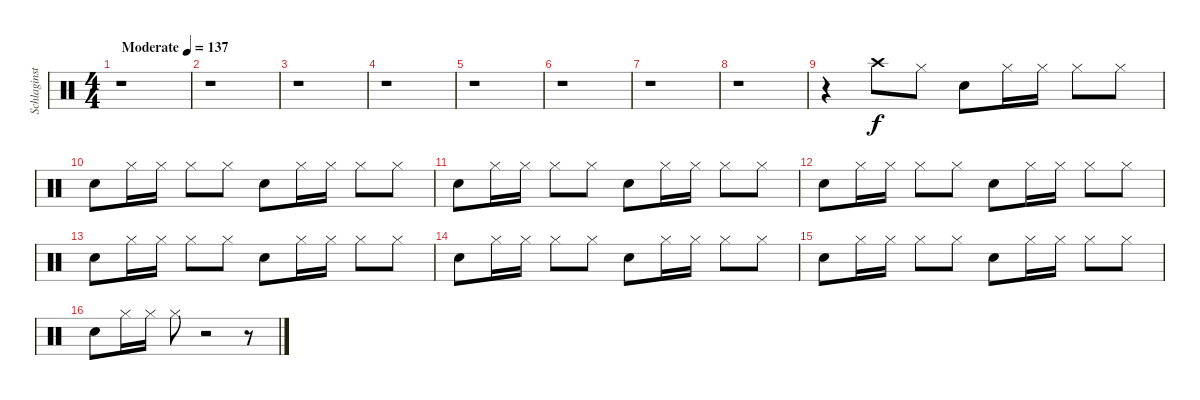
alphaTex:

\track ("Schlaginstrument" "Schlaginst") {instrument percussion}
\staff {score}
\articulation defaults
\ts (4 4)
\tempo (137 "Moderate")
\clef neutral
\ks c
r.1{dy f} |
r.1 |
r.1 |
r.1 |
r.1 |
r.1 |
r.1 |
r.1 |
r.4 "Crash high (hit)".8 "Hi-Hat (closed)".8 "Hand Clap (hit)".8 "Hi-Hat (closed)".16 "Hi-Hat (closed)".16 "Hi-Hat (closed)".8 "Hi-Hat (closed)".8 |
"Hand Clap (hit)".8 "Hi-Hat (closed)".16 "Hi-Hat (closed)".16 "Hi-Hat (closed)".8 "Hi-Hat (closed)".8 "Hand Clap (hit)".8 "Hi-Hat (closed)".16 "Hi-Hat (closed)".16 "Hi-Hat (closed)".8 "Hi-Hat (closed)".8 |
"Hand Clap (hit)".8 "Hi-Hat (closed)".16 "Hi-Hat (closed)".16 "Hi-Hat (closed)".8 "Hi-Hat (closed)".8 "Hand Clap (hit)".8 "Hi-Hat (closed)".16 "Hi-Hat (closed)".16 "Hi-Hat (closed)".8 "Hi-Hat (closed)".8 |
"Hand Clap (hit)".8 "Hi-Hat (closed)".16 "Hi-Hat (closed)".16 "Hi-Hat (closed)".8 "Hi-Hat (closed)".8 "Hand Clap (hit)".8 "Hi-Hat (closed)".16 "Hi-Hat (closed)".16 "Hi-Hat (closed)".8 "Hi-Hat (closed)".8 |
"Hand Clap (hit)".8 "Hi-Hat (closed)".16 "Hi-Hat (closed)".16 "Hi-Hat (closed)".8 "Hi-Hat (closed)".8 "Hand Clap (hit)".8 "Hi-Hat (closed)".16 "Hi-Hat (closed)".16 "Hi-Hat (closed)".8 "Hi-Hat (closed)".8 |
"Hand Clap (hit)".8 "Hi-Hat (closed)".16 "Hi-Hat (closed)".16 "Hi-Hat (closed)".8 "Hi-Hat (closed)".8 "Hand Clap (hit)".8 "Hi-Hat (closed)".16 "Hi-Hat (closed)".16 "Hi-Hat (closed)".8 "Hi-Hat (closed)".8 |
"Hand Clap (hit)".8 "Hi-Hat (closed)".16 "Hi-Hat (closed)".16 "Hi-Hat (closed)".8 "Hi-Hat (closed)".8 "Hand Clap (hit)".8 "Hi-Hat (closed)".16 "Hi-Hat (closed)".16 "Hi-Hat (closed)".8 "Hi-Hat (closed)".8 |
"Hand Clap (hit)".8 "Hi-Hat (closed)".16 "Hi-Hat (closed)".16 "Hi-Hat (closed)".8 r.2 r.8
